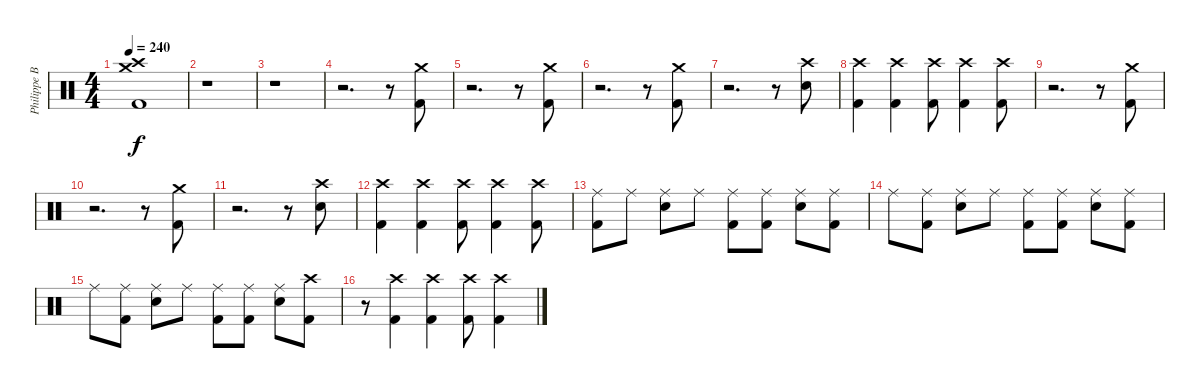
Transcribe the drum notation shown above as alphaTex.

\track ("Philippe Borda" "Philippe B") {instrument percussion}
\staff {score}
\articulation defaults
\ts (4 4)
\tempo 240
\clef neutral
\ks c
("Crash high (hit)" "Crash medium (hit)" "Kick (hit) 2").1{dy f} |
r.1 |
r.1 |
r.2{d} r.8 ("Crash medium (hit)" "Kick (hit) 2").8 |
r.2{d} r.8 ("Crash medium (hit)" "Kick (hit) 2").8 |
r.2{d} r.8 ("Crash medium (hit)" "Kick (hit) 2").8 |
r.2{d} r.8 ("Crash high (hit)" "Snare (hit) 2").8 |
("Crash high (hit)" "Kick (hit) 2").4 ("Crash high (hit)" "Kick (hit) 2").4 ("Crash high (hit)" "Kick (hit) 2").8 ("Crash high (hit)" "Kick (hit) 2").4 ("Crash high (hit)" "Kick (hit) 2").8 |
r.2{d} r.8 ("Crash medium (hit)" "Kick (hit) 2").8 |
r.2{d} r.8 ("Crash medium (hit)" "Kick (hit) 2").8 |
r.2{d} r.8 ("Crash high (hit)" "Snare (hit) 2").8 |
("Crash high (hit)" "Kick (hit) 2").4 ("Crash high (hit)" "Kick (hit) 2").4 ("Crash high (hit)" "Kick (hit) 2").8 ("Crash high (hit)" "Kick (hit) 2").4 ("Crash high (hit)" "Kick (hit) 2").8 |
("Ride (middle)" "Kick (hit) 2").8 "Ride (middle)".8 ("Ride (middle)" "Snare (hit) 2").8 "Ride (middle)".8 ("Ride (middle)" "Kick (hit) 2").8 ("Ride (middle)" "Kick (hit) 2").8 ("Ride (middle)" "Snare (hit) 2").8 ("Ride (middle)" "Kick (hit) 2").8 |
"Ride (middle)".8 ("Ride (middle)" "Kick (hit) 2").8 ("Ride (middle)" "Snare (hit) 2").8 "Ride (middle)".8 ("Ride (middle)" "Kick (hit) 2").8 ("Ride (middle)" "Kick (hit) 2").8 ("Ride (middle)" "Snare (hit) 2").8 ("Ride (middle)" "Kick (hit) 2").8 |
"Ride (middle)".8 ("Ride (middle)" "Kick (hit) 2").8 ("Ride (middle)" "Snare (hit) 2").8 "Ride (middle)".8 ("Ride (middle)" "Kick (hit) 2").8 ("Ride (middle)" "Kick (hit) 2").8 ("Ride (middle)" "Snare (hit) 2").8 ("Crash high (hit)" "Kick (hit) 2").8 |
r.8 ("Crash high (hit)" "Kick (hit) 2").4 ("Crash high (hit)" "Kick (hit) 2").4 ("Crash high (hit)" "Kick (hit) 2").8 ("Crash high (hit)" "Kick (hit) 2").4
